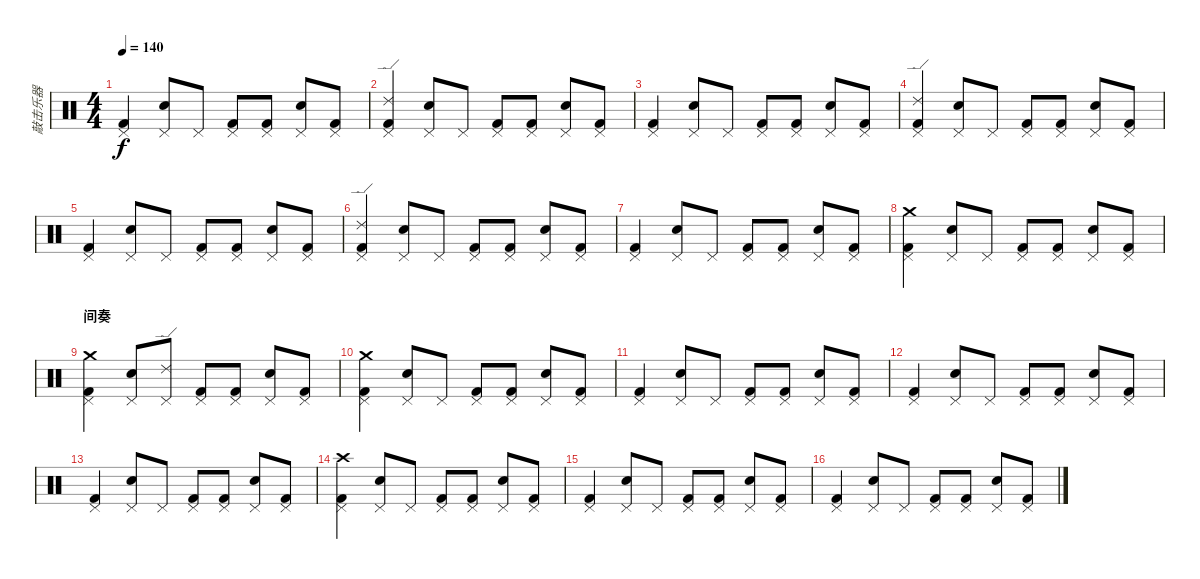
\track ("敲击乐器" "敲击乐器") {instrument percussion}
\staff {score}
\articulation defaults
\ts (4 4)
\tempo 140
\clef neutral
\ks c
("Kick (hit) 2" "Pedal Hi-Hat (hit)").4{dy f} ("Snare (hit) 2" "Pedal Hi-Hat (hit)").8 "Pedal Hi-Hat (hit)".8 ("Kick (hit) 2" "Pedal Hi-Hat (hit)").8 ("Kick (hit) 2" "Pedal Hi-Hat (hit)").8 ("Snare (hit) 2" "Pedal Hi-Hat (hit)").8 ("Kick (hit) 2" "Pedal Hi-Hat (hit)").8 |
("Kick (hit) 2" "Pedal Hi-Hat (hit)" "Ride (edge) 2").4 ("Snare (hit) 2" "Pedal Hi-Hat (hit)").8 "Pedal Hi-Hat (hit)".8 ("Kick (hit) 2" "Pedal Hi-Hat (hit)").8 ("Kick (hit) 2" "Pedal Hi-Hat (hit)").8 ("Snare (hit) 2" "Pedal Hi-Hat (hit)").8 ("Kick (hit) 2" "Pedal Hi-Hat (hit)").8 |
("Kick (hit) 2" "Pedal Hi-Hat (hit)").4 ("Snare (hit) 2" "Pedal Hi-Hat (hit)").8 "Pedal Hi-Hat (hit)".8 ("Kick (hit) 2" "Pedal Hi-Hat (hit)").8 ("Kick (hit) 2" "Pedal Hi-Hat (hit)").8 ("Snare (hit) 2" "Pedal Hi-Hat (hit)").8 ("Kick (hit) 2" "Pedal Hi-Hat (hit)").8 |
("Kick (hit) 2" "Pedal Hi-Hat (hit)" "Ride (edge) 2").4 ("Snare (hit) 2" "Pedal Hi-Hat (hit)").8 "Pedal Hi-Hat (hit)".8 ("Kick (hit) 2" "Pedal Hi-Hat (hit)").8 ("Kick (hit) 2" "Pedal Hi-Hat (hit)").8 ("Snare (hit) 2" "Pedal Hi-Hat (hit)").8 ("Kick (hit) 2" "Pedal Hi-Hat (hit)").8 |
("Kick (hit) 2" "Pedal Hi-Hat (hit)").4 ("Snare (hit) 2" "Pedal Hi-Hat (hit)").8 "Pedal Hi-Hat (hit)".8 ("Kick (hit) 2" "Pedal Hi-Hat (hit)").8 ("Kick (hit) 2" "Pedal Hi-Hat (hit)").8 ("Snare (hit) 2" "Pedal Hi-Hat (hit)").8 ("Kick (hit) 2" "Pedal Hi-Hat (hit)").8 |
("Kick (hit) 2" "Pedal Hi-Hat (hit)" "Ride (edge) 2").4 ("Snare (hit) 2" "Pedal Hi-Hat (hit)").8 "Pedal Hi-Hat (hit)".8 ("Kick (hit) 2" "Pedal Hi-Hat (hit)").8 ("Kick (hit) 2" "Pedal Hi-Hat (hit)").8 ("Snare (hit) 2" "Pedal Hi-Hat (hit)").8 ("Kick (hit) 2" "Pedal Hi-Hat (hit)").8 |
("Kick (hit) 2" "Pedal Hi-Hat (hit)").4 ("Snare (hit) 2" "Pedal Hi-Hat (hit)").8 "Pedal Hi-Hat (hit)".8 ("Kick (hit) 2" "Pedal Hi-Hat (hit)").8 ("Kick (hit) 2" "Pedal Hi-Hat (hit)").8 ("Snare (hit) 2" "Pedal Hi-Hat (hit)").8 ("Kick (hit) 2" "Pedal Hi-Hat (hit)").8 |
("Kick (hit) 2" "Pedal Hi-Hat (hit)" "Crash medium (hit)").4 ("Snare (hit) 2" "Pedal Hi-Hat (hit)").8 "Pedal Hi-Hat (hit)".8 ("Kick (hit) 2" "Pedal Hi-Hat (hit)").8 ("Kick (hit) 2" "Pedal Hi-Hat (hit)").8 ("Snare (hit) 2" "Pedal Hi-Hat (hit)").8 ("Kick (hit) 2" "Pedal Hi-Hat (hit)").8 |
\section ("" "间奏")
("Kick (hit) 2" "Pedal Hi-Hat (hit)" "Crash medium (hit)").4 ("Snare (hit) 2" "Pedal Hi-Hat (hit)").8 ("Pedal Hi-Hat (hit)" "Ride (edge) 2").8 ("Kick (hit) 2" "Pedal Hi-Hat (hit)").8 ("Kick (hit) 2" "Pedal Hi-Hat (hit)").8 ("Snare (hit) 2" "Pedal Hi-Hat (hit)").8 ("Kick (hit) 2" "Pedal Hi-Hat (hit)").8 |
("Kick (hit) 2" "Pedal Hi-Hat (hit)" "Crash medium (hit)").4 ("Snare (hit) 2" "Pedal Hi-Hat (hit)").8 "Pedal Hi-Hat (hit)".8 ("Kick (hit) 2" "Pedal Hi-Hat (hit)").8 ("Kick (hit) 2" "Pedal Hi-Hat (hit)").8 ("Snare (hit) 2" "Pedal Hi-Hat (hit)").8 ("Kick (hit) 2" "Pedal Hi-Hat (hit)").8 |
("Kick (hit) 2" "Pedal Hi-Hat (hit)").4 ("Snare (hit) 2" "Pedal Hi-Hat (hit)").8 "Pedal Hi-Hat (hit)".8 ("Kick (hit) 2" "Pedal Hi-Hat (hit)").8 ("Kick (hit) 2" "Pedal Hi-Hat (hit)").8 ("Snare (hit) 2" "Pedal Hi-Hat (hit)").8 ("Kick (hit) 2" "Pedal Hi-Hat (hit)").8 |
("Kick (hit) 2" "Pedal Hi-Hat (hit)").4 ("Snare (hit) 2" "Pedal Hi-Hat (hit)").8 "Pedal Hi-Hat (hit)".8 ("Kick (hit) 2" "Pedal Hi-Hat (hit)").8 ("Kick (hit) 2" "Pedal Hi-Hat (hit)").8 ("Snare (hit) 2" "Pedal Hi-Hat (hit)").8 ("Kick (hit) 2" "Pedal Hi-Hat (hit)").8 |
("Kick (hit) 2" "Pedal Hi-Hat (hit)").4 ("Snare (hit) 2" "Pedal Hi-Hat (hit)").8 "Pedal Hi-Hat (hit)".8 ("Kick (hit) 2" "Pedal Hi-Hat (hit)").8 ("Kick (hit) 2" "Pedal Hi-Hat (hit)").8 ("Snare (hit) 2" "Pedal Hi-Hat (hit)").8 ("Kick (hit) 2" "Pedal Hi-Hat (hit)").8 |
("Kick (hit) 2" "Pedal Hi-Hat (hit)" "Crash high (hit)").4 ("Snare (hit) 2" "Pedal Hi-Hat (hit)").8 "Pedal Hi-Hat (hit)".8 ("Kick (hit) 2" "Pedal Hi-Hat (hit)").8 ("Kick (hit) 2" "Pedal Hi-Hat (hit)").8 ("Snare (hit) 2" "Pedal Hi-Hat (hit)").8 ("Kick (hit) 2" "Pedal Hi-Hat (hit)").8 |
("Kick (hit) 2" "Pedal Hi-Hat (hit)").4 ("Snare (hit) 2" "Pedal Hi-Hat (hit)").8 "Pedal Hi-Hat (hit)".8 ("Kick (hit) 2" "Pedal Hi-Hat (hit)").8 ("Kick (hit) 2" "Pedal Hi-Hat (hit)").8 ("Snare (hit) 2" "Pedal Hi-Hat (hit)").8 ("Kick (hit) 2" "Pedal Hi-Hat (hit)").8 |
("Kick (hit) 2" "Pedal Hi-Hat (hit)").4 ("Snare (hit) 2" "Pedal Hi-Hat (hit)").8 "Pedal Hi-Hat (hit)".8 ("Kick (hit) 2" "Pedal Hi-Hat (hit)").8 ("Kick (hit) 2" "Pedal Hi-Hat (hit)").8 ("Snare (hit) 2" "Pedal Hi-Hat (hit)").8 ("Kick (hit) 2" "Pedal Hi-Hat (hit)").8
